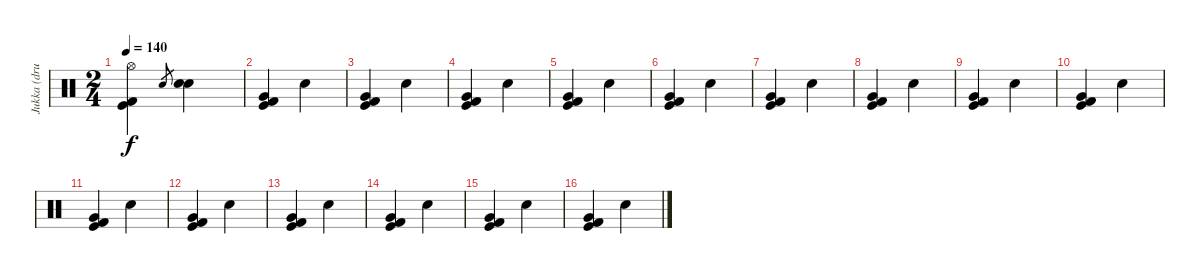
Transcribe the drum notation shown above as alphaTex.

\track ("Jukka (drums)" "Jukka (dru") {instrument percussion}
\staff {score}
\articulation defaults
\ts (2 4)
\tempo 140
\clef neutral
\ks c
("Kick (hit)" "Kick (hit) 2" "Hi-Hat (open)").4{dy f} "Electric Snare (hit)".8{gr} ("Electric Snare (hit)" "Electric Snare (hit)").4 |
("Kick (hit)" "Kick (hit) 2" "Very Low Tom (hit)").4 "Electric Snare (hit)".4 |
("Kick (hit)" "Kick (hit) 2" "Very Low Tom (hit)").4 "Electric Snare (hit)".4 |
("Kick (hit)" "Kick (hit) 2" "Very Low Tom (hit)").4 "Electric Snare (hit)".4 |
("Kick (hit)" "Kick (hit) 2" "Very Low Tom (hit)").4 "Electric Snare (hit)".4 |
("Kick (hit)" "Kick (hit) 2" "Very Low Tom (hit)").4 "Electric Snare (hit)".4 |
("Kick (hit)" "Kick (hit) 2" "Very Low Tom (hit)").4 "Electric Snare (hit)".4 |
("Kick (hit)" "Kick (hit) 2" "Very Low Tom (hit)").4 "Electric Snare (hit)".4 |
("Kick (hit)" "Kick (hit) 2" "Very Low Tom (hit)").4 "Electric Snare (hit)".4 |
("Kick (hit)" "Kick (hit) 2" "Very Low Tom (hit)").4 "Electric Snare (hit)".4 |
("Kick (hit)" "Kick (hit) 2" "Very Low Tom (hit)").4 "Electric Snare (hit)".4 |
("Kick (hit)" "Kick (hit) 2" "Very Low Tom (hit)").4 "Electric Snare (hit)".4 |
("Kick (hit)" "Kick (hit) 2" "Very Low Tom (hit)").4 "Electric Snare (hit)".4 |
("Kick (hit)" "Kick (hit) 2" "Very Low Tom (hit)").4 "Electric Snare (hit)".4 |
("Kick (hit)" "Kick (hit) 2" "Very Low Tom (hit)").4 "Electric Snare (hit)".4 |
("Kick (hit)" "Kick (hit) 2" "Very Low Tom (hit)").4 "Electric Snare (hit)".4
